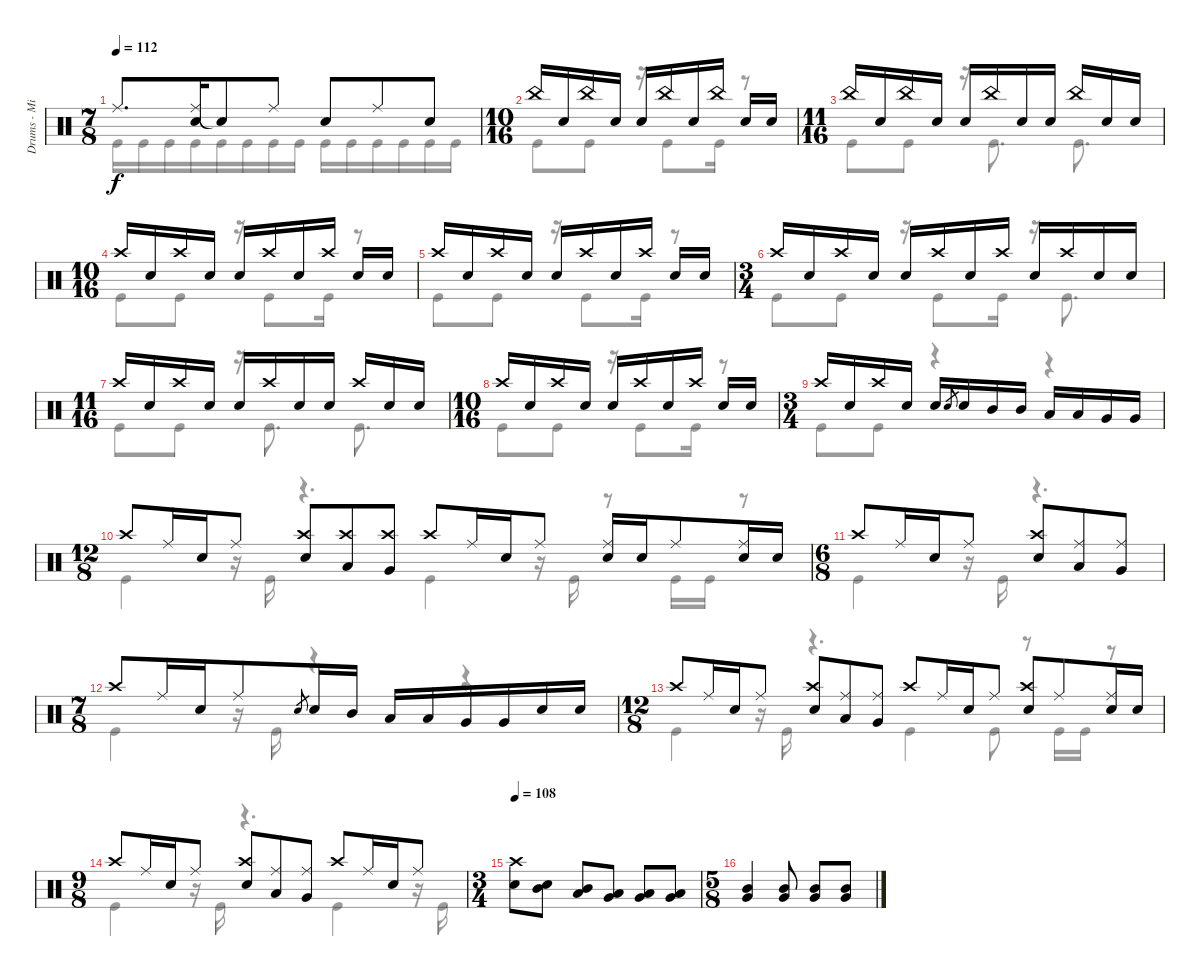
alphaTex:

\track ("Drums - Mike Portnoy" "Drums - Mi") {instrument percussion}
\staff {score}
\articulation defaults
\voice
\ts (7 8)
\tempo 112
\clef neutral
\ks c "Ride (middle)".8{d dy f}
("Ride (middle)" "Snare (hit) 2").16 "Snare (hit)"{t}.8 "Ride (middle)".8 "Snare (hit) 2".8 "Ride (middle)".8 "Snare (hit) 2".8 |
\ts (10 16)
"China (hit)".16 "Snare (hit) 2".16 "China (hit)".16 "Snare (hit) 2".16 "Snare (hit) 2".16 "China (hit)".16 "Snare (hit) 2".16 "China (hit)".16 "Snare (hit) 2".16 "Snare (hit) 2".16 |
\ts (11 16)
"China (hit)".16 "Snare (hit) 2".16 "China (hit)".16 "Snare (hit) 2".16 "Snare (hit) 2".16 "China (hit)".16 "Snare (hit) 2".16 "Snare (hit) 2".16 "China (hit)".16 "Snare (hit) 2".16 "Snare (hit) 2".16 |
\ts (10 16)
"Crash high (hit)".16 "Snare (hit) 2".16 "Crash high (hit)".16 "Snare (hit) 2".16 "Snare (hit) 2".16 "Crash high (hit)".16 "Snare (hit) 2".16 "Crash high (hit)".16 "Snare (hit) 2".16 "Snare (hit) 2".16 |
"Crash high (hit)".16 "Snare (hit) 2".16 "Crash high (hit)".16 "Snare (hit) 2".16 "Snare (hit) 2".16 "Crash high (hit)".16 "Snare (hit) 2".16 "Crash high (hit)".16 "Snare (hit) 2".16 "Snare (hit) 2".16 |
\ts (3 4)
"Crash high (hit)".16 "Snare (hit) 2".16 "Crash high (hit)".16 "Snare (hit) 2".16 "Snare (hit) 2".16 "Crash high (hit)".16 "Snare (hit) 2".16 "Crash high (hit)".16 "Snare (hit) 2".16 "Crash high (hit)".16 "Snare (hit) 2".16 "Snare (hit) 2".16 |
\ts (11 16)
"Crash high (hit)".16 "Snare (hit) 2".16 "Crash high (hit)".16 "Snare (hit) 2".16 "Snare (hit) 2".16 "Crash high (hit)".16 "Snare (hit) 2".16 "Snare (hit) 2".16 "Crash high (hit)".16 "Snare (hit) 2".16 "Snare (hit) 2".16 |
\ts (10 16)
"Crash high (hit)".16 "Snare (hit) 2".16 "Crash high (hit)".16 "Snare (hit) 2".16 "Snare (hit) 2".16 "Crash high (hit)".16 "Snare (hit) 2".16 "Crash high (hit)".16 "Snare (hit) 2".16 "Snare (hit) 2".16 |
\ts (3 4)
"Crash high (hit)".16 "Snare (hit) 2".16 "Crash high (hit)".16 "Snare (hit) 2".16 "Snare (hit) 2".16 "Snare (hit) 2".8{gr} "Snare (hit) 2".16 "Mid Tom (hit)".16 "Mid Tom (hit)".16 "Low Tom (hit)".16 "Low Tom (hit)".16 "Very Low Tom (hit)".16 "Very Low Tom (hit)".16 |
\ts (12 8)
"Crash high (hit)".8 "Ride (middle)".16 "Snare (hit) 2".16 "Ride (middle)".8 ("Crash high (hit)" "Snare (hit) 2").8 ("Crash high (hit)" "Low Tom (hit)").8 ("Crash high (hit)" "Very Low Tom (hit)").8 "Crash high (hit)".8 "Ride (middle)".16 "Snare (hit) 2".16 "Ride (middle)".8 ("Ride (middle)" "Snare (hit) 2").16 "Snare (hit) 2".16 "Ride (middle)".8 ("Ride (middle)" "Snare (hit) 2").16 "Snare (hit) 2".16 |
\ts (6 8)
"Crash high (hit)".8 "Ride (middle)".16 "Snare (hit) 2".16 "Ride (middle)".8 ("Crash high (hit)" "Snare (hit) 2").8 ("Ride (middle)" "Low Tom (hit)").8 ("Ride (middle)" "Very Low Tom (hit)").8 |
\ts (7 8)
"Crash high (hit)".8 "Ride (middle)".16 "Snare (hit) 2".16 "Ride (middle)".8 "Snare (hit) 2".8{gr} "Snare (hit) 2".16 "Mid Tom (hit)".16 "Low Tom (hit)".16 "Low Tom (hit)".16 "Very Low Tom (hit)".16 "Very Low Tom (hit)".16 "Snare (hit) 2".16 "Snare (hit) 2".16 |
\ts (12 8)
"Crash high (hit)".8 "Ride (middle)".16 "Snare (hit) 2".16 "Ride (middle)".8 ("Crash high (hit)" "Snare (hit) 2").8 ("Ride (middle)" "Low Tom (hit)").8 ("Ride (middle)" "Very Low Tom (hit)").8 "Crash high (hit)".8 "Ride (middle)".16 "Snare (hit) 2".16 "Ride (middle)".8 ("Crash high (hit)" "Snare (hit) 2").8 "Ride (middle)".8 ("Ride (middle)" "Snare (hit) 2").16 "Snare (hit) 2".16 |
\ts (9 8)
"Crash high (hit)".8 "Ride (middle)".16 "Snare (hit) 2".16 "Ride (middle)".8 ("Crash high (hit)" "Snare (hit) 2").8 ("Ride (middle)" "Low Tom (hit)").8 ("Ride (middle)" "Very Low Tom (hit)").8 "Crash high (hit)".8 "Ride (middle)".16 "Snare (hit) 2".16 "Ride (middle)".8 |
\ts (3 4)
\tempo 108
("Crash high (hit)" "Snare (hit) 2").8 ("Mid Tom (hit)" "Snare (hit) 2").8 ("Mid Tom (hit)" "Low Tom (hit)").8 ("Low Tom (hit)" "Very Low Tom (hit)").8 ("Very Low Tom (hit)" "Low Floor Tom (hit)").8 ("Very Low Tom (hit)" "Low Floor Tom (hit)").8 |
\ts (5 8)
("Mid Tom (hit)" "Very Low Tom (hit)").4 ("Mid Tom (hit)" "Very Low Tom (hit)").8 ("Mid Tom (hit)" "Very Low Tom (hit)").8 ("Mid Tom (hit)" "Very Low Tom (hit)").8
\voice
\clef neutral
\ottava regular
\simile none
\ks c "Kick (hit)".16{dy f} "Kick (hit)".16 "Kick (hit)".16 "Kick (hit)".16 "Kick (hit)".16 "Kick (hit)".16 "Kick (hit)".16 "Kick (hit)".16 "Kick (hit)".16 "Kick (hit)".16 "Kick (hit)".16 "Kick (hit)".16 "Kick (hit)".16 "Kick (hit)".16
|
"Kick (hit)".8 "Kick (hit)".8 r.16 "Kick (hit)".8 "Kick (hit)".16 r.8 |
"Kick (hit)".8 "Kick (hit)".8 r.16 "Kick (hit)".8{d} "Kick (hit)".8{d} |
"Kick (hit)".8 "Kick (hit)".8 r.16 "Kick (hit)".8 "Kick (hit)".16 r.8 |
"Kick (hit)".8 "Kick (hit)".8 r.16 "Kick (hit)".8 "Kick (hit)".16 r.8 |
"Kick (hit)".8 "Kick (hit)".8 r.16 "Kick (hit)".8 "Kick (hit)".16 r.16 "Kick (hit)".8{d} |
"Kick (hit)".8 "Kick (hit)".8 r.16 "Kick (hit)".8{d} "Kick (hit)".8{d} |
"Kick (hit)".8 "Kick (hit)".8 r.16 "Kick (hit)".8 "Kick (hit)".16 r.8 |
"Kick (hit)".8 "Kick (hit)".8 r.4 r.4 |
"Kick (hit)".4 r.16 "Kick (hit)".16 r.4{d} "Kick (hit)".4 r.16 "Kick (hit)".16 r.8 "Kick (hit)".16 "Kick (hit)".16 r.8 |
"Kick (hit)".4 r.16 "Kick (hit)".16 r.4{d} |
"Kick (hit)".4 r.16 "Kick (hit)".16 r.4 r.4 |
"Kick (hit)".4 r.16 "Kick (hit)".16 r.4{d} "Kick (hit)".4 "Kick (hit)".8 r.8 "Kick (hit)".16 "Kick (hit)".16 r.8 |
"Kick (hit)".4 r.16 "Kick (hit)".16 r.4{d} "Kick (hit)".4 r.16 "Kick (hit)".16 |
|
